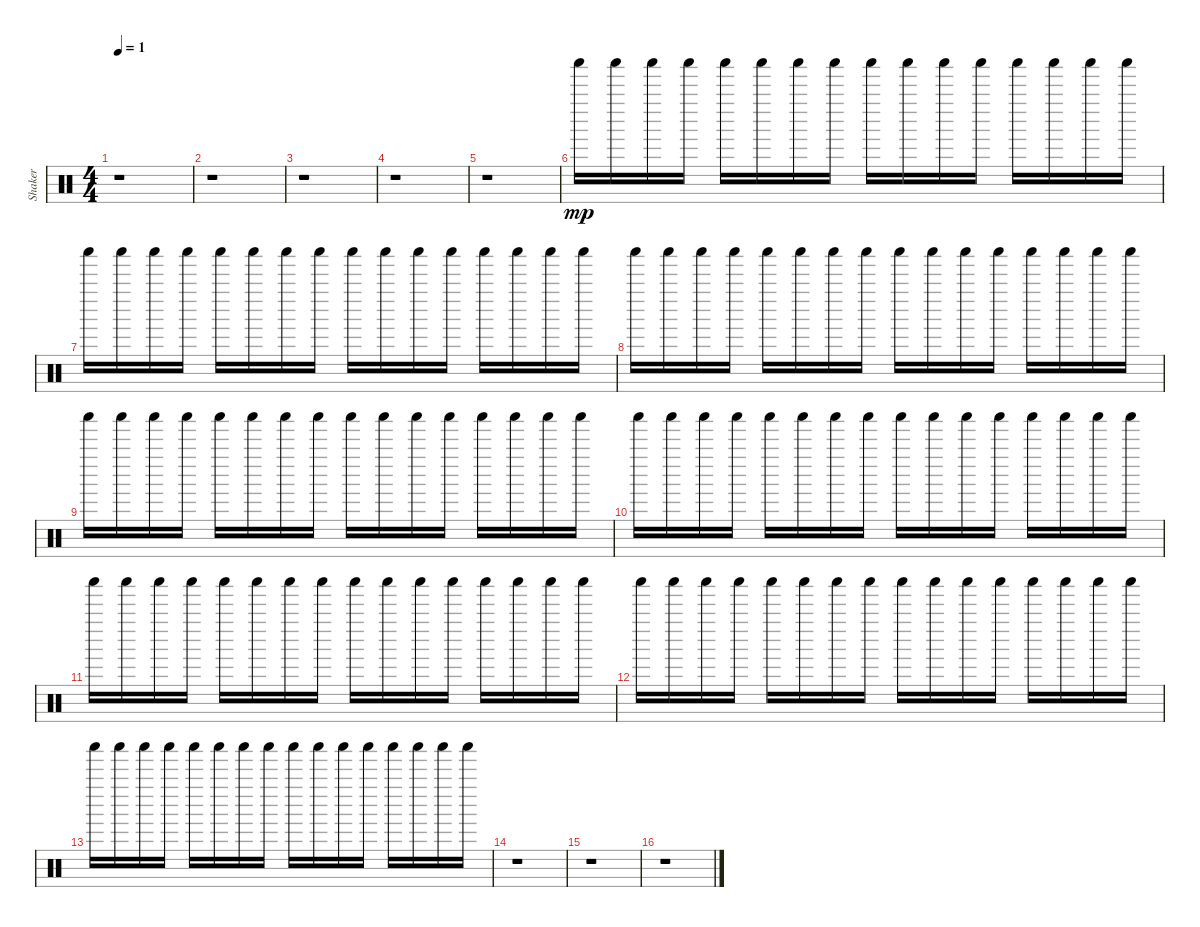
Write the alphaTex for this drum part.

\track ("Shaker" "Shaker") {instrument percussion}
\staff {score}
\articulation defaults
\ts (4 4)
\tempo 1
\clef neutral
\ks c
r.1{dy mp} |
r.1 |
r.1 |
r.1 |
r.1 |
"Shaker (hit)".16 "Shaker (hit)".16 "Shaker (hit)".16 "Shaker (hit)".16 "Shaker (hit)".16 "Shaker (hit)".16 "Shaker (hit)".16 "Shaker (hit)".16 "Shaker (hit)".16 "Shaker (hit)".16 "Shaker (hit)".16 "Shaker (hit)".16 "Shaker (hit)".16 "Shaker (hit)".16 "Shaker (hit)".16 "Shaker (hit)".16 |
"Shaker (hit)".16 "Shaker (hit)".16 "Shaker (hit)".16 "Shaker (hit)".16 "Shaker (hit)".16 "Shaker (hit)".16 "Shaker (hit)".16 "Shaker (hit)".16 "Shaker (hit)".16 "Shaker (hit)".16 "Shaker (hit)".16 "Shaker (hit)".16 "Shaker (hit)".16 "Shaker (hit)".16 "Shaker (hit)".16 "Shaker (hit)".16 |
"Shaker (hit)".16 "Shaker (hit)".16 "Shaker (hit)".16 "Shaker (hit)".16 "Shaker (hit)".16 "Shaker (hit)".16 "Shaker (hit)".16 "Shaker (hit)".16 "Shaker (hit)".16 "Shaker (hit)".16 "Shaker (hit)".16 "Shaker (hit)".16 "Shaker (hit)".16 "Shaker (hit)".16 "Shaker (hit)".16 "Shaker (hit)".16 |
"Shaker (hit)".16 "Shaker (hit)".16 "Shaker (hit)".16 "Shaker (hit)".16 "Shaker (hit)".16 "Shaker (hit)".16 "Shaker (hit)".16 "Shaker (hit)".16 "Shaker (hit)".16 "Shaker (hit)".16 "Shaker (hit)".16 "Shaker (hit)".16 "Shaker (hit)".16 "Shaker (hit)".16 "Shaker (hit)".16 "Shaker (hit)".16 |
"Shaker (hit)".16 "Shaker (hit)".16 "Shaker (hit)".16 "Shaker (hit)".16 "Shaker (hit)".16 "Shaker (hit)".16 "Shaker (hit)".16 "Shaker (hit)".16 "Shaker (hit)".16 "Shaker (hit)".16 "Shaker (hit)".16 "Shaker (hit)".16 "Shaker (hit)".16 "Shaker (hit)".16 "Shaker (hit)".16 "Shaker (hit)".16 |
"Shaker (hit)".16 "Shaker (hit)".16 "Shaker (hit)".16 "Shaker (hit)".16 "Shaker (hit)".16 "Shaker (hit)".16 "Shaker (hit)".16 "Shaker (hit)".16 "Shaker (hit)".16 "Shaker (hit)".16 "Shaker (hit)".16 "Shaker (hit)".16 "Shaker (hit)".16 "Shaker (hit)".16 "Shaker (hit)".16 "Shaker (hit)".16 |
"Shaker (hit)".16 "Shaker (hit)".16 "Shaker (hit)".16 "Shaker (hit)".16 "Shaker (hit)".16 "Shaker (hit)".16 "Shaker (hit)".16 "Shaker (hit)".16 "Shaker (hit)".16 "Shaker (hit)".16 "Shaker (hit)".16 "Shaker (hit)".16 "Shaker (hit)".16 "Shaker (hit)".16 "Shaker (hit)".16 "Shaker (hit)".16 |
"Shaker (hit)".16 "Shaker (hit)".16 "Shaker (hit)".16 "Shaker (hit)".16 "Shaker (hit)".16 "Shaker (hit)".16 "Shaker (hit)".16 "Shaker (hit)".16 "Shaker (hit)".16 "Shaker (hit)".16 "Shaker (hit)".16 "Shaker (hit)".16 "Shaker (hit)".16 "Shaker (hit)".16 "Shaker (hit)".16 "Shaker (hit)".16 |
r.1 |
r.1 |
r.1
